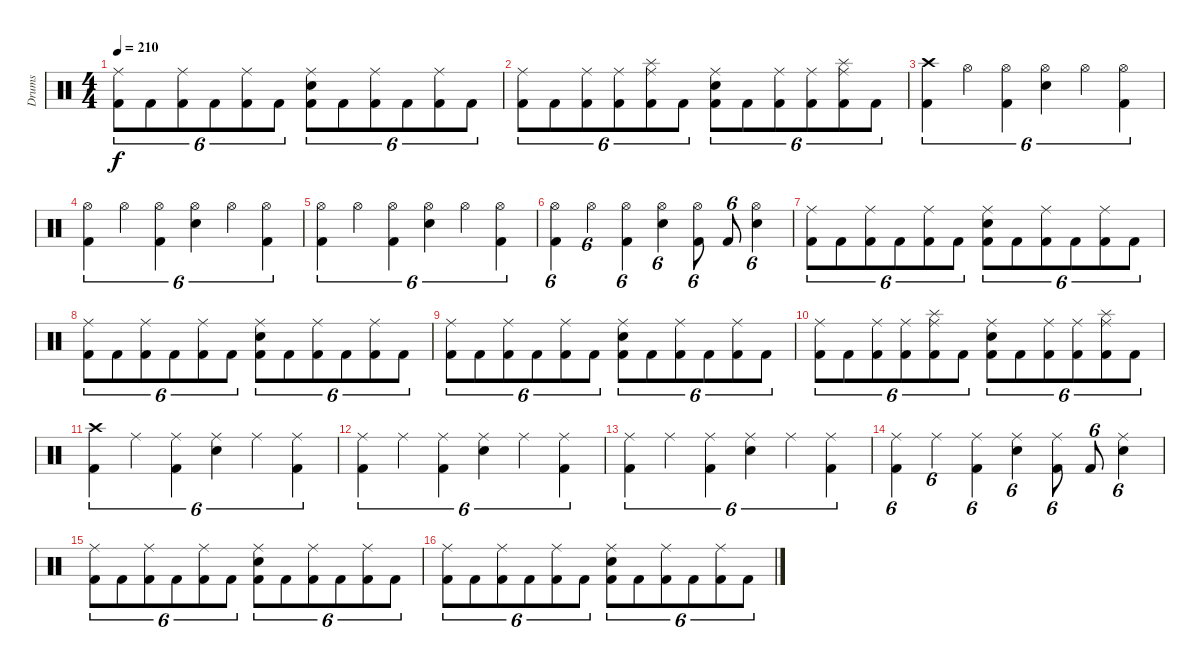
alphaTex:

\track ("Drums" "Drums") {instrument percussion}
\staff {score}
\articulation defaults
\ts (4 4)
\tempo 210
\clef neutral
\ks c
("Kick (hit) 2" "Ride (middle)").8{tu (6 4) dy f} "Kick (hit) 2".8{tu (6 4)} ("Kick (hit) 2" "Ride (middle)").8{tu (6 4)} "Kick (hit) 2".8{tu (6 4)} ("Kick (hit) 2" "Ride (middle)").8{tu (6 4)} "Kick (hit) 2".8{tu (6 4)} ("Kick (hit) 2" "Snare (hit) 2" "Ride (middle)").8{tu (6 4)} "Kick (hit) 2".8{tu (6 4)} ("Kick (hit) 2" "Ride (middle)").8{tu (6 4)} "Kick (hit) 2".8{tu (6 4)} ("Kick (hit) 2" "Ride (middle)").8{tu (6 4)} "Kick (hit) 2".8{tu (6 4)} |
("Kick (hit) 2" "Ride (middle)").8{tu (6 4)} "Kick (hit) 2".8{tu (6 4)} ("Kick (hit) 2" "Ride (middle)").8{tu (6 4)} ("Kick (hit) 2" "Ride (middle)").8{tu (6 4)} ("Kick (hit) 2" "Ride (middle)" "Splash (hit)").8{tu (6 4)} "Kick (hit) 2".8{tu (6 4)} ("Kick (hit) 2" "Snare (hit) 2" "Ride (middle)").8{tu (6 4)} "Kick (hit) 2".8{tu (6 4)} ("Kick (hit) 2" "Ride (middle)").8{tu (6 4)} ("Kick (hit) 2" "Ride (middle)").8{tu (6 4)} ("Kick (hit) 2" "Ride (middle)" "Splash (hit)").8{tu (6 4)} "Kick (hit) 2".8{tu (6 4)} |
("Kick (hit) 2" "Crash high (hit)").4{tu (6 4)} "Hi-Hat (open)".4{tu (6 4)} ("Kick (hit) 2" "Hi-Hat (open)").4{tu (6 4)} ("Snare (hit) 2" "Hi-Hat (open)").4{tu (6 4)} "Hi-Hat (open)".4{tu (6 4)} ("Kick (hit) 2" "Hi-Hat (open)").4{tu (6 4)} |
("Kick (hit) 2" "Hi-Hat (open)").4{tu (6 4)} "Hi-Hat (open)".4{tu (6 4)} ("Kick (hit) 2" "Hi-Hat (open)").4{tu (6 4)} ("Snare (hit) 2" "Hi-Hat (open)").4{tu (6 4)} "Hi-Hat (open)".4{tu (6 4)} ("Kick (hit) 2" "Hi-Hat (open)").4{tu (6 4)} |
("Kick (hit) 2" "Hi-Hat (open)").4{tu (6 4)} "Hi-Hat (open)".4{tu (6 4)} ("Kick (hit) 2" "Hi-Hat (open)").4{tu (6 4)} ("Snare (hit) 2" "Hi-Hat (open)").4{tu (6 4)} "Hi-Hat (open)".4{tu (6 4)} ("Kick (hit) 2" "Hi-Hat (open)").4{tu (6 4)} |
("Kick (hit) 2" "Hi-Hat (open)").4{tu (6 4)} "Hi-Hat (open)".4{tu (6 4)} ("Kick (hit) 2" "Hi-Hat (open)").4{tu (6 4)} ("Snare (hit) 2" "Hi-Hat (open)").4{tu (6 4)} ("Kick (hit) 2" "Hi-Hat (open)").8{tu (6 4)} "Kick (hit) 2".8{tu (6 4)} ("Snare (hit) 2" "Hi-Hat (open)").4{tu (6 4)} |
("Kick (hit) 2" "Ride (middle)").8{tu (6 4)} "Kick (hit) 2".8{tu (6 4)} ("Kick (hit) 2" "Ride (middle)").8{tu (6 4)} "Kick (hit) 2".8{tu (6 4)} ("Kick (hit) 2" "Ride (middle)").8{tu (6 4)} "Kick (hit) 2".8{tu (6 4)} ("Kick (hit) 2" "Snare (hit) 2" "Ride (middle)").8{tu (6 4)} "Kick (hit) 2".8{tu (6 4)} ("Kick (hit) 2" "Ride (middle)").8{tu (6 4)} "Kick (hit) 2".8{tu (6 4)} ("Kick (hit) 2" "Ride (middle)").8{tu (6 4)} "Kick (hit) 2".8{tu (6 4)} |
("Kick (hit) 2" "Ride (middle)").8{tu (6 4)} "Kick (hit) 2".8{tu (6 4)} ("Kick (hit) 2" "Ride (middle)").8{tu (6 4)} "Kick (hit) 2".8{tu (6 4)} ("Kick (hit) 2" "Ride (middle)").8{tu (6 4)} "Kick (hit) 2".8{tu (6 4)} ("Kick (hit) 2" "Snare (hit) 2" "Ride (middle)").8{tu (6 4)} "Kick (hit) 2".8{tu (6 4)} ("Kick (hit) 2" "Ride (middle)").8{tu (6 4)} "Kick (hit) 2".8{tu (6 4)} ("Kick (hit) 2" "Ride (middle)").8{tu (6 4)} "Kick (hit) 2".8{tu (6 4)} |
("Kick (hit) 2" "Ride (middle)").8{tu (6 4)} "Kick (hit) 2".8{tu (6 4)} ("Kick (hit) 2" "Ride (middle)").8{tu (6 4)} "Kick (hit) 2".8{tu (6 4)} ("Kick (hit) 2" "Ride (middle)").8{tu (6 4)} "Kick (hit) 2".8{tu (6 4)} ("Kick (hit) 2" "Snare (hit) 2" "Ride (middle)").8{tu (6 4)} "Kick (hit) 2".8{tu (6 4)} ("Kick (hit) 2" "Ride (middle)").8{tu (6 4)} "Kick (hit) 2".8{tu (6 4)} ("Kick (hit) 2" "Ride (middle)").8{tu (6 4)} "Kick (hit) 2".8{tu (6 4)} |
("Kick (hit) 2" "Ride (middle)").8{tu (6 4)} "Kick (hit) 2".8{tu (6 4)} ("Kick (hit) 2" "Ride (middle)").8{tu (6 4)} ("Kick (hit) 2" "Ride (middle)").8{tu (6 4)} ("Kick (hit) 2" "Ride (middle)" "Splash (hit)").8{tu (6 4)} "Kick (hit) 2".8{tu (6 4)} ("Kick (hit) 2" "Snare (hit) 2" "Ride (middle)").8{tu (6 4)} "Kick (hit) 2".8{tu (6 4)} ("Kick (hit) 2" "Ride (middle)").8{tu (6 4)} ("Kick (hit) 2" "Ride (middle)").8{tu (6 4)} ("Kick (hit) 2" "Ride (middle)" "Splash (hit)").8{tu (6 4)} "Kick (hit) 2".8{tu (6 4)} |
("Kick (hit) 2" "Crash high (hit)").4{tu (6 4)} "Ride (middle)".4{tu (6 4)} ("Kick (hit) 2" "Ride (middle)").4{tu (6 4)} ("Snare (hit) 2" "Ride (middle)").4{tu (6 4)} "Ride (middle)".4{tu (6 4)} ("Kick (hit) 2" "Ride (middle)").4{tu (6 4)} |
("Kick (hit) 2" "Ride (middle)").4{tu (6 4)} "Ride (middle)".4{tu (6 4)} ("Kick (hit) 2" "Ride (middle)").4{tu (6 4)} ("Snare (hit) 2" "Ride (middle)").4{tu (6 4)} "Ride (middle)".4{tu (6 4)} ("Kick (hit) 2" "Ride (middle)").4{tu (6 4)} |
("Kick (hit) 2" "Ride (middle)").4{tu (6 4)} "Ride (middle)".4{tu (6 4)} ("Kick (hit) 2" "Ride (middle)").4{tu (6 4)} ("Snare (hit) 2" "Ride (middle)").4{tu (6 4)} "Ride (middle)".4{tu (6 4)} ("Kick (hit) 2" "Ride (middle)").4{tu (6 4)} |
("Kick (hit) 2" "Ride (middle)").4{tu (6 4)} "Ride (middle)".4{tu (6 4)} ("Kick (hit) 2" "Ride (middle)").4{tu (6 4)} ("Snare (hit) 2" "Ride (middle)").4{tu (6 4)} ("Kick (hit) 2" "Ride (middle)").8{tu (6 4)} "Kick (hit) 2".8{tu (6 4)} ("Snare (hit) 2" "Ride (middle)").4{tu (6 4)} |
("Kick (hit) 2" "Ride (middle)").8{tu (6 4)} "Kick (hit) 2".8{tu (6 4)} ("Kick (hit) 2" "Ride (middle)").8{tu (6 4)} "Kick (hit) 2".8{tu (6 4)} ("Kick (hit) 2" "Ride (middle)").8{tu (6 4)} "Kick (hit) 2".8{tu (6 4)} ("Kick (hit) 2" "Snare (hit) 2" "Ride (middle)").8{tu (6 4)} "Kick (hit) 2".8{tu (6 4)} ("Kick (hit) 2" "Ride (middle)").8{tu (6 4)} "Kick (hit) 2".8{tu (6 4)} ("Kick (hit) 2" "Ride (middle)").8{tu (6 4)} "Kick (hit) 2".8{tu (6 4)} |
("Kick (hit) 2" "Ride (middle)").8{tu (6 4)} "Kick (hit) 2".8{tu (6 4)} ("Kick (hit) 2" "Ride (middle)").8{tu (6 4)} "Kick (hit) 2".8{tu (6 4)} ("Kick (hit) 2" "Ride (middle)").8{tu (6 4)} "Kick (hit) 2".8{tu (6 4)} ("Kick (hit) 2" "Snare (hit) 2" "Ride (middle)").8{tu (6 4)} "Kick (hit) 2".8{tu (6 4)} ("Kick (hit) 2" "Ride (middle)").8{tu (6 4)} "Kick (hit) 2".8{tu (6 4)} ("Kick (hit) 2" "Ride (middle)").8{tu (6 4)} "Kick (hit) 2".8{tu (6 4)}
